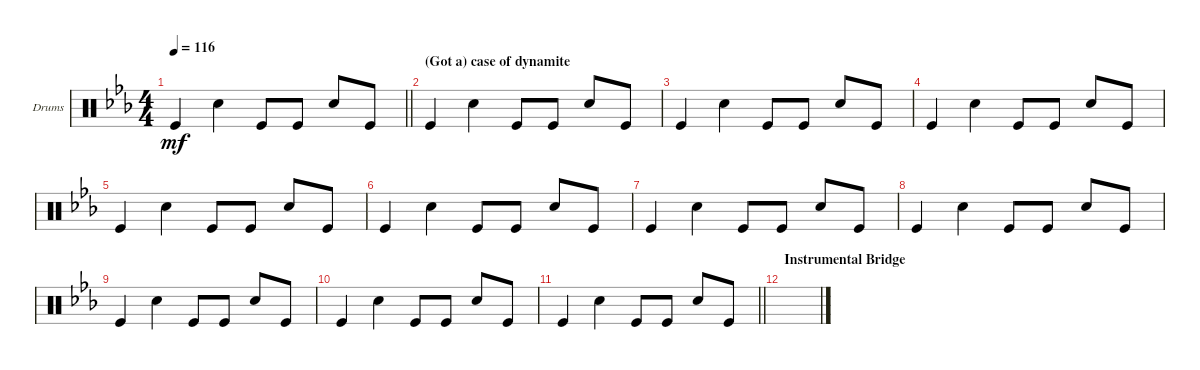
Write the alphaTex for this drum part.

\defaultSystemsLayout 4
\bracketExtendMode groupsimilarinstruments
\firstSystemTrackNameOrientation horizontal
\otherSystemsTrackNameOrientation horizontal
\track ("Drumkit" "Drums") {instrument percussion}
\staff {score}
\articulation defaults
\ts (4 4)
\scale
0.583227
\tempo 116
\accidentals auto
\clef neutral
\ottava regular
\simile none
\barLineRight lightlight
\ks cminor "Kick (hit)".4{dy mf} "Snare (hit) 2".4 "Kick (hit)".8 "Kick (hit)".8 "Snare (hit) 2".8 "Kick (hit)".8
|
\section ("" "(Got a) case of dynamite")
\scale
0.246851 "Kick (hit)".4 "Snare (hit) 2".4 "Kick (hit)".8 "Kick (hit)".8 "Snare (hit) 2".8 "Kick (hit)".8 |
\scale
0.169736 "Kick (hit)".4 "Snare (hit) 2".4 "Kick (hit)".8 "Kick (hit)".8 "Snare (hit) 2".8 "Kick (hit)".8 |
"Kick (hit)".4 "Snare (hit) 2".4 "Kick (hit)".8 "Kick (hit)".8 "Snare (hit) 2".8 "Kick (hit)".8 |
"Kick (hit)".4 "Snare (hit) 2".4 "Kick (hit)".8 "Kick (hit)".8 "Snare (hit) 2".8 "Kick (hit)".8 |
"Kick (hit)".4 "Snare (hit) 2".4 "Kick (hit)".8 "Kick (hit)".8 "Snare (hit) 2".8 "Kick (hit)".8 |
\scale
0.397058 "Kick (hit)".4 "Snare (hit) 2".4 "Kick (hit)".8 "Kick (hit)".8 "Snare (hit) 2".8 "Kick (hit)".8 |
\scale
0.219018 "Kick (hit)".4 "Snare (hit) 2".4 "Kick (hit)".8 "Kick (hit)".8 "Snare (hit) 2".8 "Kick (hit)".8 |
\scale
0.383866 "Kick (hit)".4 "Snare (hit) 2".4 "Kick (hit)".8 "Kick (hit)".8 "Snare (hit) 2".8 "Kick (hit)".8 |
"Kick (hit)".4 "Snare (hit) 2".4 "Kick (hit)".8 "Kick (hit)".8 "Snare (hit) 2".8 "Kick (hit)".8 |
\barLineRight lightlight "Kick (hit)".4 "Snare (hit) 2".4 "Kick (hit)".8 "Kick (hit)".8 "Snare (hit) 2".8 "Kick (hit)".8
|
\section ("" "Instrumental Bridge")
